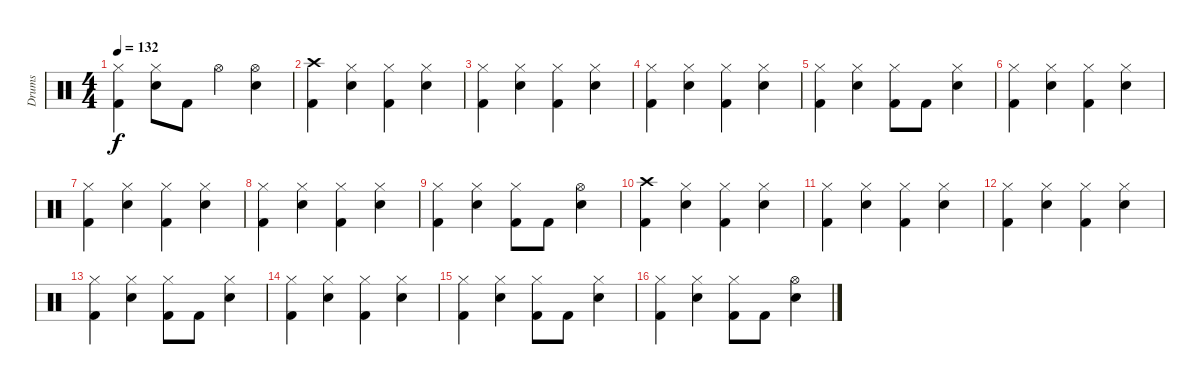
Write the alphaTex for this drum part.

\track ("Drums" "Drums") {instrument percussion}
\staff {score}
\articulation defaults
\ts (4 4)
\tempo 132
\clef neutral
\ks c
("Hi-Hat (closed)" "Kick (hit) 2").4{dy f} ("Hi-Hat (closed)" "Electric Snare (hit)").8 "Kick (hit) 2".8 "Hi-Hat (open)".4 ("Hi-Hat (open)" "Electric Snare (hit)").4 |
("Crash high (hit)" "Kick (hit) 2").4 ("Hi-Hat (closed)" "Electric Snare (hit)").4 ("Hi-Hat (closed)" "Kick (hit) 2").4 ("Hi-Hat (closed)" "Electric Snare (hit)").4 |
("Hi-Hat (closed)" "Kick (hit) 2").4 ("Hi-Hat (closed)" "Electric Snare (hit)").4 ("Hi-Hat (closed)" "Kick (hit) 2").4 ("Hi-Hat (closed)" "Electric Snare (hit)").4 |
("Hi-Hat (closed)" "Kick (hit) 2").4 ("Hi-Hat (closed)" "Electric Snare (hit)").4 ("Hi-Hat (closed)" "Kick (hit) 2").4 ("Hi-Hat (closed)" "Electric Snare (hit)").4 |
("Hi-Hat (closed)" "Kick (hit) 2").4 ("Hi-Hat (closed)" "Electric Snare (hit)").4 ("Hi-Hat (closed)" "Kick (hit) 2").8 "Kick (hit) 2".8 ("Hi-Hat (closed)" "Electric Snare (hit)").4 |
("Hi-Hat (closed)" "Kick (hit) 2").4 ("Hi-Hat (closed)" "Electric Snare (hit)").4 ("Hi-Hat (closed)" "Kick (hit) 2").4 ("Hi-Hat (closed)" "Electric Snare (hit)").4 |
("Hi-Hat (closed)" "Kick (hit) 2").4 ("Hi-Hat (closed)" "Electric Snare (hit)").4 ("Hi-Hat (closed)" "Kick (hit) 2").4 ("Hi-Hat (closed)" "Electric Snare (hit)").4 |
("Hi-Hat (closed)" "Kick (hit) 2").4 ("Hi-Hat (closed)" "Electric Snare (hit)").4 ("Hi-Hat (closed)" "Kick (hit) 2").4 ("Hi-Hat (closed)" "Electric Snare (hit)").4 |
("Hi-Hat (closed)" "Kick (hit) 2").4 ("Hi-Hat (closed)" "Electric Snare (hit)").4 ("Hi-Hat (closed)" "Kick (hit) 2").8 "Kick (hit) 2".8 ("Hi-Hat (open)" "Electric Snare (hit)").4 |
("Crash high (hit)" "Kick (hit) 2").4 ("Hi-Hat (closed)" "Electric Snare (hit)").4 ("Hi-Hat (closed)" "Kick (hit) 2").4 ("Hi-Hat (closed)" "Electric Snare (hit)").4 |
("Hi-Hat (closed)" "Kick (hit) 2").4 ("Hi-Hat (closed)" "Electric Snare (hit)").4 ("Hi-Hat (closed)" "Kick (hit) 2").4 ("Hi-Hat (closed)" "Electric Snare (hit)").4 |
("Hi-Hat (closed)" "Kick (hit) 2").4 ("Hi-Hat (closed)" "Electric Snare (hit)").4 ("Hi-Hat (closed)" "Kick (hit) 2").4 ("Hi-Hat (closed)" "Electric Snare (hit)").4 |
("Hi-Hat (closed)" "Kick (hit) 2").4 ("Hi-Hat (closed)" "Electric Snare (hit)").4 ("Hi-Hat (closed)" "Kick (hit) 2").8 "Kick (hit) 2".8 ("Hi-Hat (closed)" "Electric Snare (hit)").4 |
("Hi-Hat (closed)" "Kick (hit) 2").4 ("Hi-Hat (closed)" "Electric Snare (hit)").4 ("Hi-Hat (closed)" "Kick (hit) 2").4 ("Hi-Hat (closed)" "Electric Snare (hit)").4 |
("Hi-Hat (closed)" "Kick (hit) 2").4 ("Hi-Hat (closed)" "Electric Snare (hit)").4 ("Hi-Hat (closed)" "Kick (hit) 2").8 "Kick (hit) 2".8 ("Hi-Hat (closed)" "Electric Snare (hit)").4 |
("Hi-Hat (closed)" "Kick (hit) 2").4 ("Hi-Hat (closed)" "Electric Snare (hit)").4 ("Hi-Hat (closed)" "Kick (hit) 2").8 "Kick (hit) 2".8 ("Hi-Hat (open)" "Electric Snare (hit)").4
